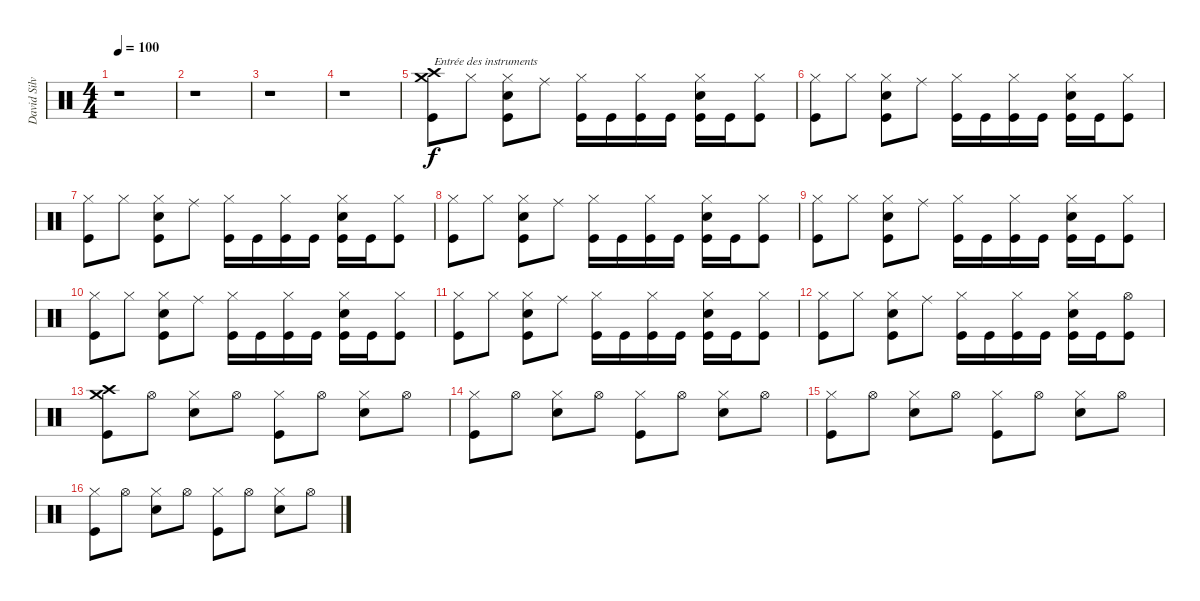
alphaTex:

\track ("David Silviera" "David Silv") {instrument percussion}
\staff {score}
\articulation defaults
\ts (4 4)
\tempo 100
\clef neutral
\ks c
r.1{dy f} |
r.1 |
r.1 |
r.1 |
("Crash medium (hit)" "Crash high (hit)" "Kick (hit)").8{txt "Entrée des instruments"} "Hi-Hat (closed)".8 ("Snare (hit) 2" "Hi-Hat (closed)" "Kick (hit)").8 "Ride (middle)".8 ("Hi-Hat (closed)" "Kick (hit)").16 "Kick (hit)".16 ("Hi-Hat (closed)" "Kick (hit)").16 "Kick (hit)".16 ("Snare (hit) 2" "Hi-Hat (closed)" "Kick (hit)").16 "Kick (hit)".16 ("Hi-Hat (closed)" "Kick (hit)").8 |
("Hi-Hat (closed)" "Kick (hit)").8 "Hi-Hat (closed)".8 ("Snare (hit) 2" "Hi-Hat (closed)" "Kick (hit)").8 "Ride (middle)".8 ("Hi-Hat (closed)" "Kick (hit)").16 "Kick (hit)".16 ("Hi-Hat (closed)" "Kick (hit)").16 "Kick (hit)".16 ("Snare (hit) 2" "Hi-Hat (closed)" "Kick (hit)").16 "Kick (hit)".16 ("Hi-Hat (closed)" "Kick (hit)").8 |
("Hi-Hat (closed)" "Kick (hit)").8 "Hi-Hat (closed)".8 ("Snare (hit) 2" "Hi-Hat (closed)" "Kick (hit)").8 "Ride (middle)".8 ("Hi-Hat (closed)" "Kick (hit)").16 "Kick (hit)".16 ("Hi-Hat (closed)" "Kick (hit)").16 "Kick (hit)".16 ("Snare (hit) 2" "Hi-Hat (closed)" "Kick (hit)").16 "Kick (hit)".16 ("Hi-Hat (closed)" "Kick (hit)").8 |
("Hi-Hat (closed)" "Kick (hit)").8 "Hi-Hat (closed)".8 ("Snare (hit) 2" "Hi-Hat (closed)" "Kick (hit)").8 "Ride (middle)".8 ("Hi-Hat (closed)" "Kick (hit)").16 "Kick (hit)".16 ("Hi-Hat (closed)" "Kick (hit)").16 "Kick (hit)".16 ("Snare (hit) 2" "Hi-Hat (closed)" "Kick (hit)").16 "Kick (hit)".16 ("Hi-Hat (closed)" "Kick (hit)").8 |
("Hi-Hat (closed)" "Kick (hit)").8 "Hi-Hat (closed)".8 ("Snare (hit) 2" "Hi-Hat (closed)" "Kick (hit)").8 "Ride (middle)".8 ("Hi-Hat (closed)" "Kick (hit)").16 "Kick (hit)".16 ("Hi-Hat (closed)" "Kick (hit)").16 "Kick (hit)".16 ("Snare (hit) 2" "Hi-Hat (closed)" "Kick (hit)").16 "Kick (hit)".16 ("Hi-Hat (closed)" "Kick (hit)").8 |
("Hi-Hat (closed)" "Kick (hit)").8 "Hi-Hat (closed)".8 ("Snare (hit) 2" "Hi-Hat (closed)" "Kick (hit)").8 "Ride (middle)".8 ("Hi-Hat (closed)" "Kick (hit)").16 "Kick (hit)".16 ("Hi-Hat (closed)" "Kick (hit)").16 "Kick (hit)".16 ("Snare (hit) 2" "Hi-Hat (closed)" "Kick (hit)").16 "Kick (hit)".16 ("Hi-Hat (closed)" "Kick (hit)").8 |
("Hi-Hat (closed)" "Kick (hit)").8 "Hi-Hat (closed)".8 ("Snare (hit) 2" "Hi-Hat (closed)" "Kick (hit)").8 "Ride (middle)".8 ("Hi-Hat (closed)" "Kick (hit)").16 "Kick (hit)".16 ("Hi-Hat (closed)" "Kick (hit)").16 "Kick (hit)".16 ("Snare (hit) 2" "Hi-Hat (closed)" "Kick (hit)").16 "Kick (hit)".16 ("Hi-Hat (closed)" "Kick (hit)").8 |
("Hi-Hat (closed)" "Kick (hit)").8 "Hi-Hat (closed)".8 ("Snare (hit) 2" "Hi-Hat (closed)" "Kick (hit)").8 "Ride (middle)".8 ("Hi-Hat (closed)" "Kick (hit)").16 "Kick (hit)".16 ("Hi-Hat (closed)" "Kick (hit)").16 "Kick (hit)".16 ("Snare (hit) 2" "Hi-Hat (closed)" "Kick (hit)").16 "Kick (hit)".16 ("Hi-Hat (open)" "Kick (hit)").8 |
("Crash medium (hit)" "Crash high (hit)" "Kick (hit)").8 "Hi-Hat (open)".8 ("Snare (hit) 2" "Hi-Hat (closed)").8 "Hi-Hat (open)".8 ("Hi-Hat (closed)" "Kick (hit)").8 "Hi-Hat (open)".8 ("Snare (hit) 2" "Hi-Hat (closed)").8 "Hi-Hat (open)".8 |
("Hi-Hat (closed)" "Kick (hit)").8 "Hi-Hat (open)".8 ("Snare (hit) 2" "Hi-Hat (closed)").8 "Hi-Hat (open)".8 ("Hi-Hat (closed)" "Kick (hit)").8 "Hi-Hat (open)".8 ("Snare (hit) 2" "Hi-Hat (closed)").8 "Hi-Hat (open)".8 |
("Hi-Hat (closed)" "Kick (hit)").8 "Hi-Hat (open)".8 ("Snare (hit) 2" "Hi-Hat (closed)").8 "Hi-Hat (open)".8 ("Hi-Hat (closed)" "Kick (hit)").8 "Hi-Hat (open)".8 ("Snare (hit) 2" "Hi-Hat (closed)").8 "Hi-Hat (open)".8 |
("Hi-Hat (closed)" "Kick (hit)").8 "Hi-Hat (open)".8 ("Snare (hit) 2" "Hi-Hat (closed)").8 "Hi-Hat (open)".8 ("Hi-Hat (closed)" "Kick (hit)").8 "Hi-Hat (open)".8 ("Snare (hit) 2" "Hi-Hat (closed)").8 "Hi-Hat (open)".8
